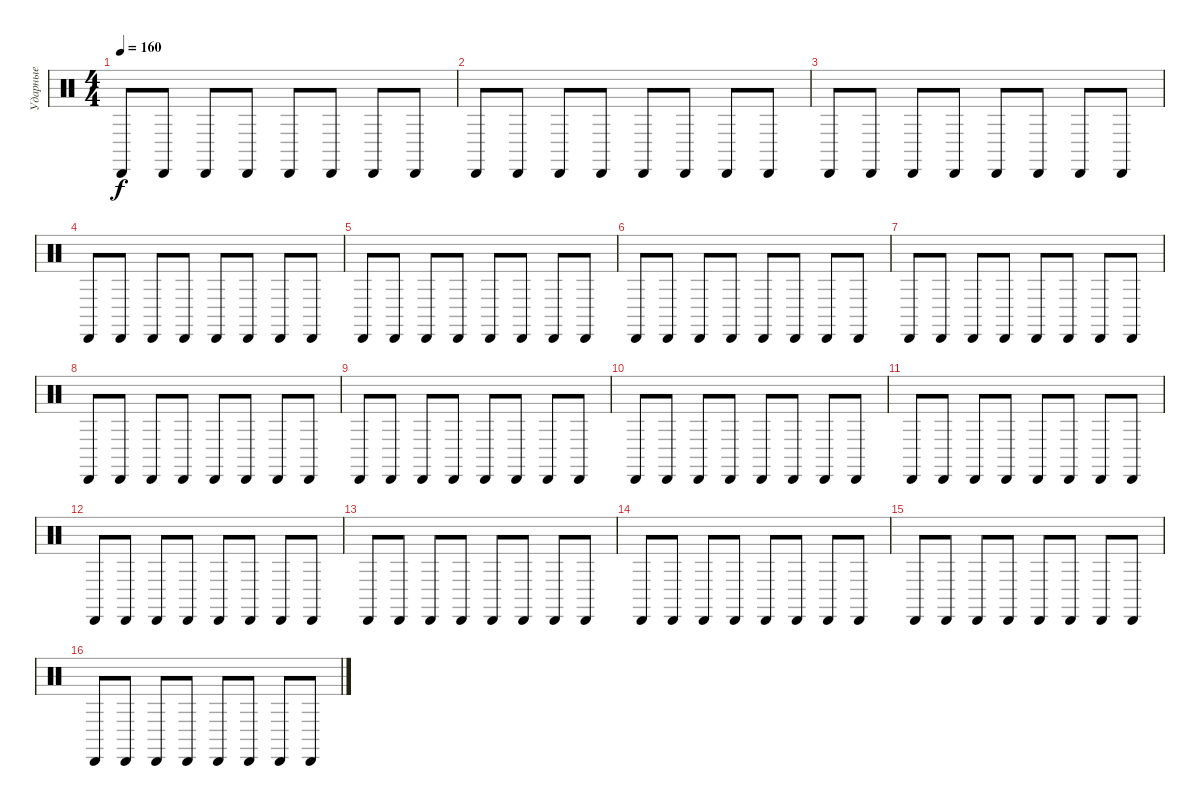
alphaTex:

\track ("Ударные" "Ударные") {instrument percussion}
\staff {score}
\articulation defaults
\ts (4 4)
\tempo 160
\clef neutral
\ks c "Cabasa (hit)".8{dy f} "Cabasa (hit)".8 "Cabasa (hit)".8 "Cabasa (hit)".8 "Cabasa (hit)".8 "Cabasa (hit)".8 "Cabasa (hit)".8 "Cabasa (hit)".8
|
"Cabasa (hit)".8 "Cabasa (hit)".8 "Cabasa (hit)".8 "Cabasa (hit)".8 "Cabasa (hit)".8 "Cabasa (hit)".8 "Cabasa (hit)".8 "Cabasa (hit)".8 |
"Cabasa (hit)".8 "Cabasa (hit)".8 "Cabasa (hit)".8 "Cabasa (hit)".8 "Cabasa (hit)".8 "Cabasa (hit)".8 "Cabasa (hit)".8 "Cabasa (hit)".8 |
"Cabasa (hit)".8 "Cabasa (hit)".8 "Cabasa (hit)".8 "Cabasa (hit)".8 "Cabasa (hit)".8 "Cabasa (hit)".8 "Cabasa (hit)".8 "Cabasa (hit)".8 |
"Cabasa (hit)".8 "Cabasa (hit)".8 "Cabasa (hit)".8 "Cabasa (hit)".8 "Cabasa (hit)".8 "Cabasa (hit)".8 "Cabasa (hit)".8 "Cabasa (hit)".8 |
"Cabasa (hit)".8 "Cabasa (hit)".8 "Cabasa (hit)".8 "Cabasa (hit)".8 "Cabasa (hit)".8 "Cabasa (hit)".8 "Cabasa (hit)".8 "Cabasa (hit)".8 |
"Cabasa (hit)".8 "Cabasa (hit)".8 "Cabasa (hit)".8 "Cabasa (hit)".8 "Cabasa (hit)".8 "Cabasa (hit)".8 "Cabasa (hit)".8 "Cabasa (hit)".8 |
"Cabasa (hit)".8 "Cabasa (hit)".8 "Cabasa (hit)".8 "Cabasa (hit)".8 "Cabasa (hit)".8 "Cabasa (hit)".8 "Cabasa (hit)".8 "Cabasa (hit)".8 |
"Cabasa (hit)".8 "Cabasa (hit)".8 "Cabasa (hit)".8 "Cabasa (hit)".8 "Cabasa (hit)".8 "Cabasa (hit)".8 "Cabasa (hit)".8 "Cabasa (hit)".8 |
"Cabasa (hit)".8 "Cabasa (hit)".8 "Cabasa (hit)".8 "Cabasa (hit)".8 "Cabasa (hit)".8 "Cabasa (hit)".8 "Cabasa (hit)".8 "Cabasa (hit)".8 |
"Cabasa (hit)".8 "Cabasa (hit)".8 "Cabasa (hit)".8 "Cabasa (hit)".8 "Cabasa (hit)".8 "Cabasa (hit)".8 "Cabasa (hit)".8 "Cabasa (hit)".8 |
"Cabasa (hit)".8 "Cabasa (hit)".8 "Cabasa (hit)".8 "Cabasa (hit)".8 "Cabasa (hit)".8 "Cabasa (hit)".8 "Cabasa (hit)".8 "Cabasa (hit)".8 |
"Cabasa (hit)".8 "Cabasa (hit)".8 "Cabasa (hit)".8 "Cabasa (hit)".8 "Cabasa (hit)".8 "Cabasa (hit)".8 "Cabasa (hit)".8 "Cabasa (hit)".8 |
"Cabasa (hit)".8 "Cabasa (hit)".8 "Cabasa (hit)".8 "Cabasa (hit)".8 "Cabasa (hit)".8 "Cabasa (hit)".8 "Cabasa (hit)".8 "Cabasa (hit)".8 |
"Cabasa (hit)".8 "Cabasa (hit)".8 "Cabasa (hit)".8 "Cabasa (hit)".8 "Cabasa (hit)".8 "Cabasa (hit)".8 "Cabasa (hit)".8 "Cabasa (hit)".8 |
"Cabasa (hit)".8 "Cabasa (hit)".8 "Cabasa (hit)".8 "Cabasa (hit)".8 "Cabasa (hit)".8 "Cabasa (hit)".8 "Cabasa (hit)".8 "Cabasa (hit)".8
